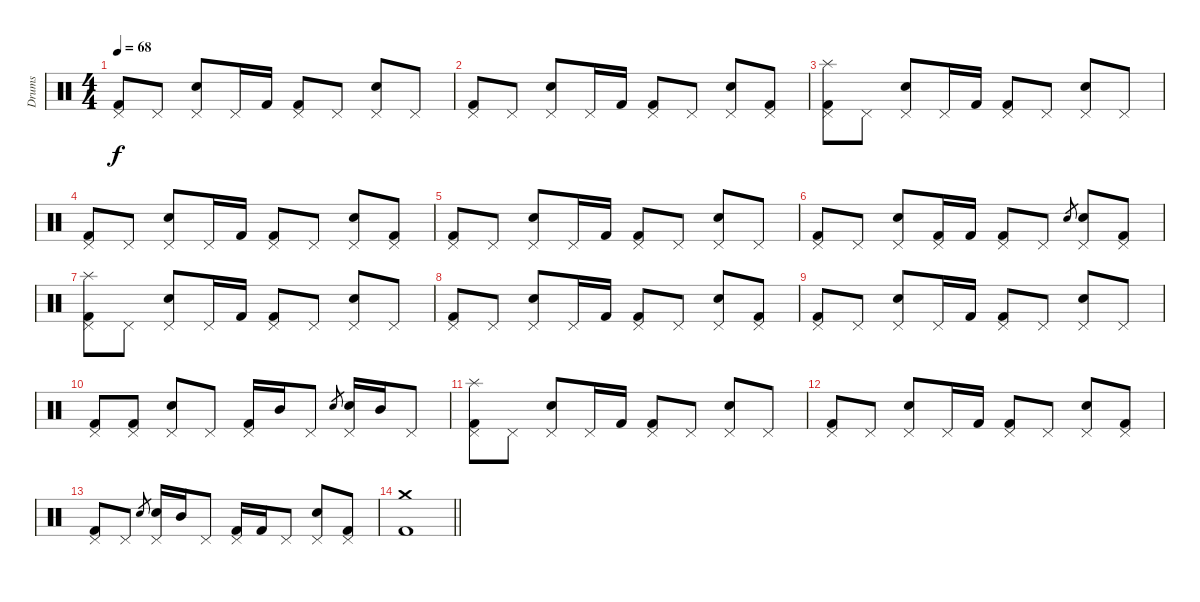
\track ("Drums" "Drums") {instrument percussion}
\staff {score}
\articulation defaults
\ts (4 4)
\tempo 68
\clef neutral
\ks c
("Pedal Hi-Hat (hit)" "Kick (hit) 2").8{dy f} "Pedal Hi-Hat (hit)".8 ("Pedal Hi-Hat (hit)" "Electric Snare (hit)").8 "Pedal Hi-Hat (hit)".16 "Kick (hit) 2".16 ("Pedal Hi-Hat (hit)" "Kick (hit) 2").8 "Pedal Hi-Hat (hit)".8 ("Pedal Hi-Hat (hit)" "Electric Snare (hit)").8 "Pedal Hi-Hat (hit)".8 |
("Pedal Hi-Hat (hit)" "Kick (hit) 2").8 "Pedal Hi-Hat (hit)".8 ("Pedal Hi-Hat (hit)" "Electric Snare (hit)").8 "Pedal Hi-Hat (hit)".16 "Kick (hit) 2".16 ("Pedal Hi-Hat (hit)" "Kick (hit) 2").8 "Pedal Hi-Hat (hit)".8 ("Pedal Hi-Hat (hit)" "Electric Snare (hit)").8 ("Pedal Hi-Hat (hit)" "Kick (hit) 2").8 |
("Pedal Hi-Hat (hit)" "Splash (hit)" "Kick (hit) 2").8 "Pedal Hi-Hat (hit)".8 ("Pedal Hi-Hat (hit)" "Electric Snare (hit)").8 "Pedal Hi-Hat (hit)".16 "Kick (hit) 2".16 ("Pedal Hi-Hat (hit)" "Kick (hit) 2").8 "Pedal Hi-Hat (hit)".8 ("Pedal Hi-Hat (hit)" "Electric Snare (hit)").8 "Pedal Hi-Hat (hit)".8 |
("Pedal Hi-Hat (hit)" "Kick (hit) 2").8 "Pedal Hi-Hat (hit)".8 ("Pedal Hi-Hat (hit)" "Electric Snare (hit)").8 "Pedal Hi-Hat (hit)".16 "Kick (hit) 2".16 ("Pedal Hi-Hat (hit)" "Kick (hit) 2").8 "Pedal Hi-Hat (hit)".8 ("Pedal Hi-Hat (hit)" "Electric Snare (hit)").8 ("Pedal Hi-Hat (hit)" "Kick (hit) 2").8 |
("Pedal Hi-Hat (hit)" "Kick (hit) 2").8 "Pedal Hi-Hat (hit)".8 ("Pedal Hi-Hat (hit)" "Electric Snare (hit)").8 "Pedal Hi-Hat (hit)".16 "Kick (hit) 2".16 ("Pedal Hi-Hat (hit)" "Kick (hit) 2").8 "Pedal Hi-Hat (hit)".8 ("Pedal Hi-Hat (hit)" "Electric Snare (hit)").8 "Pedal Hi-Hat (hit)".8 |
("Pedal Hi-Hat (hit)" "Kick (hit) 2").8 "Pedal Hi-Hat (hit)".8 ("Pedal Hi-Hat (hit)" "Electric Snare (hit)").8 ("Pedal Hi-Hat (hit)" "Kick (hit) 2").16 "Kick (hit) 2".16 ("Pedal Hi-Hat (hit)" "Kick (hit) 2").8 "Pedal Hi-Hat (hit)".8 "Electric Snare (hit)"{h}.8{gr} ("Pedal Hi-Hat (hit)" "Electric Snare (hit)").8 ("Pedal Hi-Hat (hit)" "Kick (hit) 2").8 |
("Pedal Hi-Hat (hit)" "Splash (hit)" "Kick (hit) 2").8 "Pedal Hi-Hat (hit)".8 ("Pedal Hi-Hat (hit)" "Electric Snare (hit)").8 "Pedal Hi-Hat (hit)".16 "Kick (hit) 2".16 ("Pedal Hi-Hat (hit)" "Kick (hit) 2").8 "Pedal Hi-Hat (hit)".8 ("Pedal Hi-Hat (hit)" "Electric Snare (hit)").8 "Pedal Hi-Hat (hit)".8 |
("Pedal Hi-Hat (hit)" "Kick (hit) 2").8 "Pedal Hi-Hat (hit)".8 ("Pedal Hi-Hat (hit)" "Electric Snare (hit)").8 "Pedal Hi-Hat (hit)".16 "Kick (hit) 2".16 ("Pedal Hi-Hat (hit)" "Kick (hit) 2").8 "Pedal Hi-Hat (hit)".8 ("Pedal Hi-Hat (hit)" "Electric Snare (hit)").8 ("Pedal Hi-Hat (hit)" "Kick (hit) 2").8 |
("Pedal Hi-Hat (hit)" "Kick (hit) 2").8 "Pedal Hi-Hat (hit)".8 ("Pedal Hi-Hat (hit)" "Electric Snare (hit)").8 "Pedal Hi-Hat (hit)".16 "Kick (hit) 2".16 ("Pedal Hi-Hat (hit)" "Kick (hit) 2").8 "Pedal Hi-Hat (hit)".8 ("Pedal Hi-Hat (hit)" "Electric Snare (hit)").8 "Pedal Hi-Hat (hit)".8 |
("Pedal Hi-Hat (hit)" "Kick (hit) 2").8 ("Pedal Hi-Hat (hit)" "Kick (hit) 2").8 ("Pedal Hi-Hat (hit)" "Electric Snare (hit)").8 "Pedal Hi-Hat (hit)".8 ("Pedal Hi-Hat (hit)" "Kick (hit) 2").16 "Mid Tom (hit)".16 "Pedal Hi-Hat (hit)".8 "Electric Snare (hit)"{h}.8{gr} ("Pedal Hi-Hat (hit)" "Electric Snare (hit)").16 "Mid Tom (hit)".16 "Pedal Hi-Hat (hit)".8 |
("Pedal Hi-Hat (hit)" "Splash (hit)" "Kick (hit) 2").8 "Pedal Hi-Hat (hit)".8 ("Pedal Hi-Hat (hit)" "Electric Snare (hit)").8 "Pedal Hi-Hat (hit)".16 "Kick (hit) 2".16 ("Pedal Hi-Hat (hit)" "Kick (hit) 2").8 "Pedal Hi-Hat (hit)".8 ("Pedal Hi-Hat (hit)" "Electric Snare (hit)").8 "Pedal Hi-Hat (hit)".8 |
("Pedal Hi-Hat (hit)" "Kick (hit) 2").8 "Pedal Hi-Hat (hit)".8 ("Pedal Hi-Hat (hit)" "Electric Snare (hit)").8 "Pedal Hi-Hat (hit)".16 "Kick (hit) 2".16 ("Pedal Hi-Hat (hit)" "Kick (hit) 2").8 "Pedal Hi-Hat (hit)".8 ("Pedal Hi-Hat (hit)" "Electric Snare (hit)").8 ("Pedal Hi-Hat (hit)" "Kick (hit) 2").8 |
("Pedal Hi-Hat (hit)" "Kick (hit) 2").8 "Pedal Hi-Hat (hit)".8 "Electric Snare (hit)"{h}.8{gr} ("Pedal Hi-Hat (hit)" "Electric Snare (hit)").16 "Mid Tom (hit)".16 "Pedal Hi-Hat (hit)".8 ("Pedal Hi-Hat (hit)" "Kick (hit) 2").16 "Kick (hit) 2".16 "Pedal Hi-Hat (hit)".8 ("Pedal Hi-Hat (hit)" "Electric Snare (hit)").8 ("Pedal Hi-Hat (hit)" "Kick (hit) 2").8 |
\barLineRight lightlight
("Crash medium (hit)" "Kick (hit) 2").1
